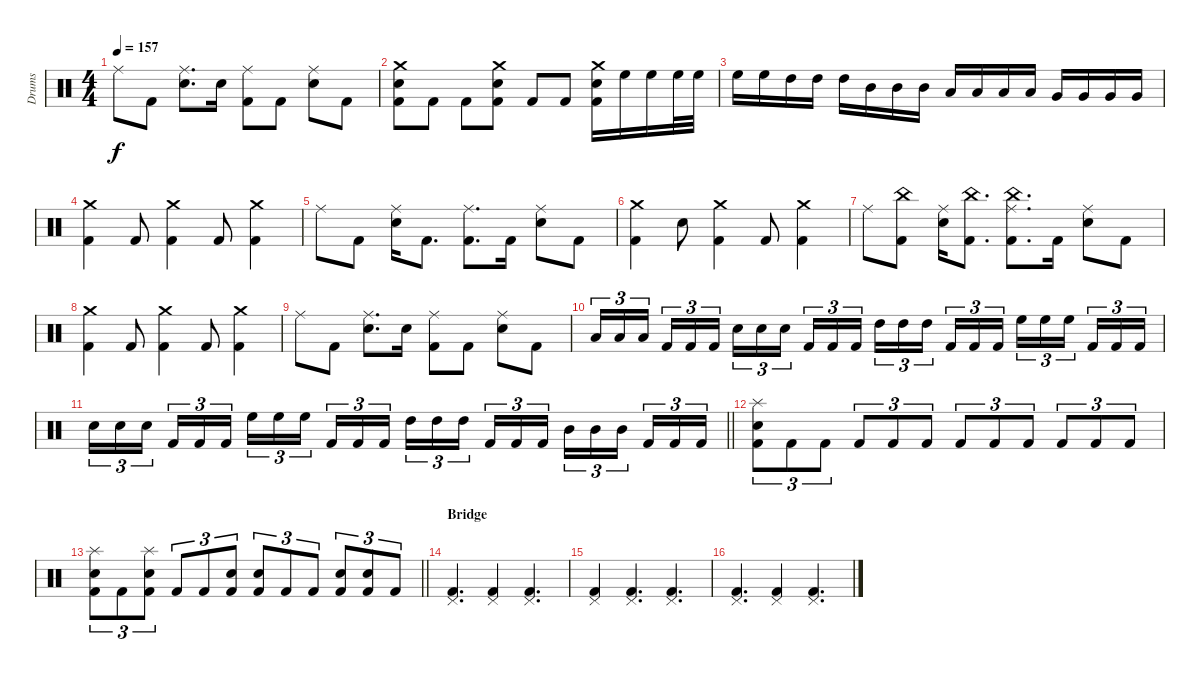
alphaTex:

\track ("Drums" "Drums") {instrument percussion}
\staff {score}
\articulation defaults
\ts (4 4)
\tempo 157
\clef neutral
\ks c "Ride (middle)".8{dy f} "Kick (hit) 2".8
("Ride (middle)" "Electric Snare (hit)").8{d} "Electric Snare (hit)".16 ("Ride (middle)" "Kick (hit) 2").8 "Kick (hit) 2".8 ("Ride (middle)" "Electric Snare (hit)").8 "Kick (hit) 2".8 |
("Crash medium (hit)" "Electric Snare (hit)" "Kick (hit) 2").8 "Kick (hit) 2".8 "Kick (hit) 2".8 ("Crash medium (hit)" "Electric Snare (hit)" "Kick (hit) 2").8 "Kick (hit) 2".8 "Kick (hit) 2".8 ("Crash medium (hit)" "Electric Snare (hit)" "Kick (hit) 2").16 "High Floor Tom (hit)".16 "High Floor Tom (hit)".16 "High Floor Tom (hit)".32 "High Floor Tom (hit)".32 |
"High Floor Tom (hit)".16 "High Floor Tom (hit)".16 "High Tom (hit)".16 "High Tom (hit)".16 "High Tom (hit)".16 "Mid Tom (hit)".16 "Mid Tom (hit)".16 "Mid Tom (hit)".16 "Low Tom (hit)".16 "Low Tom (hit)".16 "Low Tom (hit)".16 "Low Tom (hit)".16 "Very Low Tom (hit)".16 "Very Low Tom (hit)".16 "Very Low Tom (hit)".16 "Very Low Tom (hit)".16 |
("Crash medium (hit)" "Kick (hit) 2").4 "Kick (hit) 2".8 ("Crash medium (hit)" "Kick (hit) 2").4 "Kick (hit) 2".8 ("Crash medium (hit)" "Kick (hit) 2").4 |
"Ride (middle)".8 "Kick (hit) 2".8 ("Ride (middle)" "Electric Snare (hit)").16 "Kick (hit) 2".8{d} ("Ride (middle)" "Kick (hit) 2").8{d} "Kick (hit) 2".16 ("Ride (middle)" "Electric Snare (hit)").8 "Kick (hit) 2".8 |
("Crash medium (hit)" "Kick (hit) 2").4 "Electric Snare (hit)".8 ("Crash medium (hit)" "Kick (hit) 2").4 "Kick (hit) 2".8 ("Crash medium (hit)" "Kick (hit) 2").4 |
"Ride (middle)".8 ("China (hit)" "Kick (hit) 2").8 ("Ride (middle)" "Electric Snare (hit)").16 ("China (hit)" "Kick (hit) 2").8{d} ("Ride (middle)" "China (hit)" "Kick (hit) 2").8{d} "Kick (hit) 2".16 ("Ride (middle)" "Electric Snare (hit)").8 "Kick (hit) 2".8 |
("Crash medium (hit)" "Kick (hit) 2").4 "Kick (hit) 2".8 ("Crash medium (hit)" "Kick (hit) 2").4 "Kick (hit) 2".8 ("Crash medium (hit)" "Kick (hit) 2").4 |
"Ride (middle)".8 "Kick (hit) 2".8 ("Ride (middle)" "Electric Snare (hit)").8{d} "Electric Snare (hit)".16 ("Ride (middle)" "Kick (hit) 2").8 "Kick (hit) 2".8 ("Ride (middle)" "Electric Snare (hit)").8 "Kick (hit) 2".8 |
"Low Tom (hit)".16{tu (3 2)} "Low Tom (hit)".16{tu (3 2)} "Low Tom (hit)".16{tu (3 2) beam splitsecondary} "Kick (hit) 2".16{tu (3 2)} "Kick (hit) 2".16{tu (3 2)} "Kick (hit) 2".16{tu (3 2)} "Electric Snare (hit)".16{tu (3 2)} "Electric Snare (hit)".16{tu (3 2)} "Electric Snare (hit)".16{tu (3 2) beam splitsecondary} "Kick (hit) 2".16{tu (3 2)} "Kick (hit) 2".16{tu (3 2)} "Kick (hit) 2".16{tu (3 2)} "High Tom (hit)".16{tu (3 2)} "High Tom (hit)".16{tu (3 2)} "High Tom (hit)".16{tu (3 2) beam splitsecondary} "Kick (hit) 2".16{tu (3 2)} "Kick (hit) 2".16{tu (3 2)} "Kick (hit) 2".16{tu (3 2)} "High Floor Tom (hit)".16{tu (3 2)} "High Floor Tom (hit)".16{tu (3 2)} "High Floor Tom (hit)".16{tu (3 2) beam splitsecondary} "Kick (hit) 2".16{tu (3 2)} "Kick (hit) 2".16{tu (3 2)} "Kick (hit) 2".16{tu (3 2)} |
\barLineRight lightlight "Electric Snare (hit)".16{tu (3 2)} "Electric Snare (hit)".16{tu (3 2)} "Electric Snare (hit)".16{tu (3 2) beam splitsecondary} "Kick (hit) 2".16{tu (3 2)} "Kick (hit) 2".16{tu (3 2)} "Kick (hit) 2".16{tu (3 2)} "High Floor Tom (hit)".16{tu (3 2)} "High Floor Tom (hit)".16{tu (3 2)} "High Floor Tom (hit)".16{tu (3 2) beam splitsecondary} "Kick (hit) 2".16{tu (3 2)} "Kick (hit) 2".16{tu (3 2)} "Kick (hit) 2".16{tu (3 2)} "High Tom (hit)".16{tu (3 2)} "High Tom (hit)".16{tu (3 2)} "High Tom (hit)".16{tu (3 2) beam splitsecondary} "Kick (hit) 2".16{tu (3 2)} "Kick (hit) 2".16{tu (3 2)} "Kick (hit) 2".16{tu (3 2)} "Mid Tom (hit)".16{tu (3 2)} "Mid Tom (hit)".16{tu (3 2)} "Mid Tom (hit)".16{tu (3 2) beam splitsecondary} "Kick (hit) 2".16{tu (3 2)} "Kick (hit) 2".16{tu (3 2)} "Kick (hit) 2".16{tu (3 2)}
|
("Splash (hit)" "Electric Snare (hit)" "Kick (hit) 2").8{tu (3 2)} "Kick (hit) 2".8{tu (3 2)} "Kick (hit) 2".8{tu (3 2)} "Kick (hit) 2".8{tu (3 2)} "Kick (hit) 2".8{tu (3 2)} "Kick (hit) 2".8{tu (3 2)} "Kick (hit) 2".8{tu (3 2)} "Kick (hit) 2".8{tu (3 2)} "Kick (hit) 2".8{tu (3 2)} "Kick (hit) 2".8{tu (3 2)} "Kick (hit) 2".8{tu (3 2)} "Kick (hit) 2".8{tu (3 2)} |
\barLineRight lightlight
("Splash (hit)" "Electric Snare (hit)" "Kick (hit) 2").8{tu (3 2)} "Kick (hit) 2".8{tu (3 2)} ("Splash (hit)" "Electric Snare (hit)" "Kick (hit) 2").8{tu (3 2)} "Kick (hit) 2".8{tu (3 2)} "Kick (hit) 2".8{tu (3 2)} ("Electric Snare (hit)" "Kick (hit) 2").8{tu (3 2)} ("Electric Snare (hit)" "Kick (hit) 2").8{tu (3 2)} "Kick (hit) 2".8{tu (3 2)} "Kick (hit) 2".8{tu (3 2)} ("Electric Snare (hit)" "Kick (hit) 2").8{tu (3 2)} ("Electric Snare (hit)" "Kick (hit) 2").8{tu (3 2)} "Kick (hit) 2".8{tu (3 2)} |
\section ("" "Bridge")
("Pedal Hi-Hat (hit)" "Kick (hit) 2").4{d} ("Pedal Hi-Hat (hit)" "Kick (hit) 2").4 ("Pedal Hi-Hat (hit)" "Kick (hit) 2").4{d} |
("Pedal Hi-Hat (hit)" "Kick (hit) 2").4 ("Pedal Hi-Hat (hit)" "Kick (hit) 2").4{d} ("Pedal Hi-Hat (hit)" "Kick (hit) 2").4{d} |
("Pedal Hi-Hat (hit)" "Kick (hit) 2").4{d} ("Pedal Hi-Hat (hit)" "Kick (hit) 2").4 ("Pedal Hi-Hat (hit)" "Kick (hit) 2").4{d}
